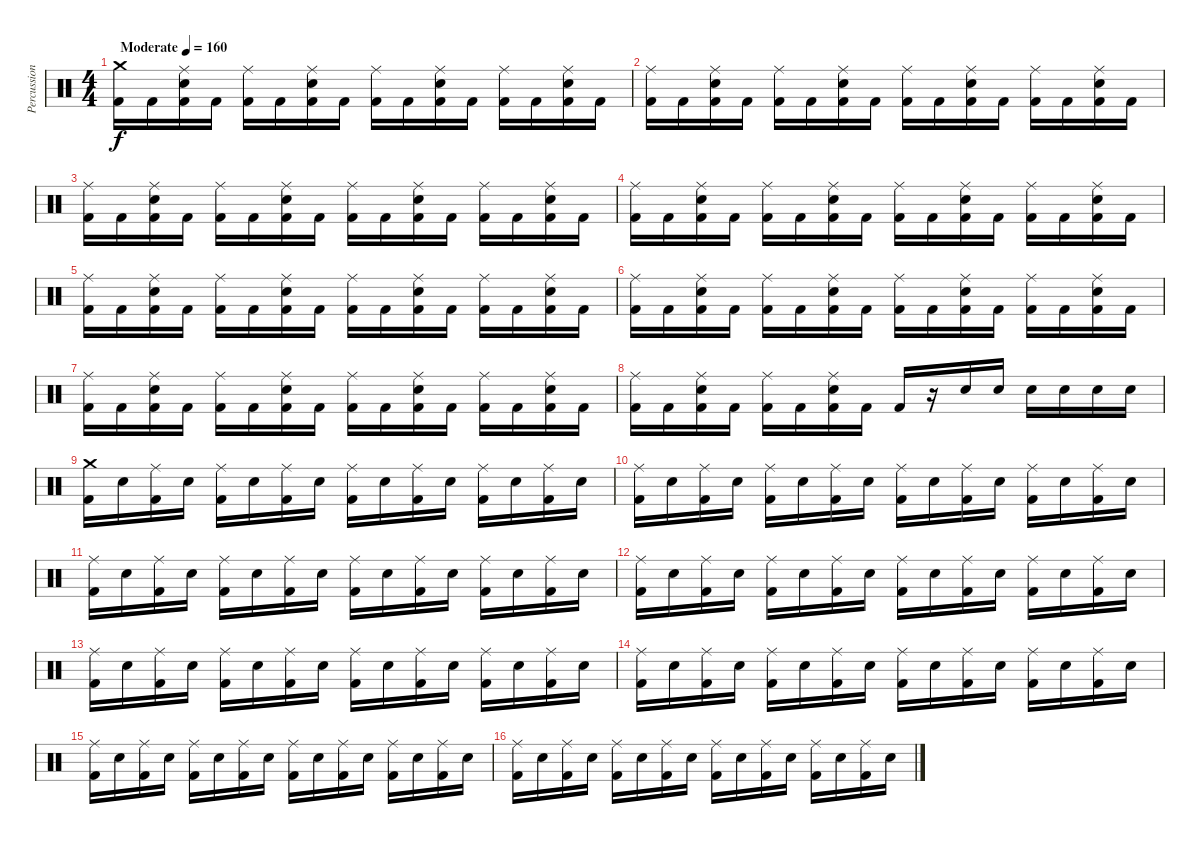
\track ("Percussions" "Percussion") {instrument percussion}
\staff {score}
\articulation defaults
\ts (4 4)
\tempo (160 "Moderate")
\clef neutral
\ks c
("Crash medium (hit)" "Kick (hit) 2").16{dy f} "Kick (hit) 2".16 ("Ride (middle)" "Snare (hit) 2" "Kick (hit) 2").16 "Kick (hit) 2".16 ("Ride (middle)" "Kick (hit) 2").16 "Kick (hit) 2".16 ("Ride (middle)" "Snare (hit) 2" "Kick (hit) 2").16 "Kick (hit) 2".16 ("Ride (middle)" "Kick (hit) 2").16 "Kick (hit) 2".16 ("Ride (middle)" "Snare (hit) 2" "Kick (hit) 2").16 "Kick (hit) 2".16 ("Ride (middle)" "Kick (hit) 2").16 "Kick (hit) 2".16 ("Ride (middle)" "Snare (hit) 2" "Kick (hit) 2").16 "Kick (hit) 2".16 |
("Ride (middle)" "Kick (hit) 2").16 "Kick (hit) 2".16 ("Ride (middle)" "Snare (hit) 2" "Kick (hit) 2").16 "Kick (hit) 2".16 ("Ride (middle)" "Kick (hit) 2").16 "Kick (hit) 2".16 ("Ride (middle)" "Snare (hit) 2" "Kick (hit) 2").16 "Kick (hit) 2".16 ("Ride (middle)" "Kick (hit) 2").16 "Kick (hit) 2".16 ("Ride (middle)" "Snare (hit) 2" "Kick (hit) 2").16 "Kick (hit) 2".16 ("Ride (middle)" "Kick (hit) 2").16 "Kick (hit) 2".16 ("Ride (middle)" "Snare (hit) 2" "Kick (hit) 2").16 "Kick (hit) 2".16 |
("Ride (middle)" "Kick (hit) 2").16 "Kick (hit) 2".16 ("Ride (middle)" "Snare (hit) 2" "Kick (hit) 2").16 "Kick (hit) 2".16 ("Ride (middle)" "Kick (hit) 2").16 "Kick (hit) 2".16 ("Ride (middle)" "Snare (hit) 2" "Kick (hit) 2").16 "Kick (hit) 2".16 ("Ride (middle)" "Kick (hit) 2").16 "Kick (hit) 2".16 ("Ride (middle)" "Snare (hit) 2" "Kick (hit) 2").16 "Kick (hit) 2".16 ("Ride (middle)" "Kick (hit) 2").16 "Kick (hit) 2".16 ("Ride (middle)" "Snare (hit) 2" "Kick (hit) 2").16 "Kick (hit) 2".16 |
("Ride (middle)" "Kick (hit) 2").16 "Kick (hit) 2".16 ("Ride (middle)" "Snare (hit) 2" "Kick (hit) 2").16 "Kick (hit) 2".16 ("Ride (middle)" "Kick (hit) 2").16 "Kick (hit) 2".16 ("Ride (middle)" "Snare (hit) 2" "Kick (hit) 2").16 "Kick (hit) 2".16 ("Ride (middle)" "Kick (hit) 2").16 "Kick (hit) 2".16 ("Ride (middle)" "Snare (hit) 2" "Kick (hit) 2").16 "Kick (hit) 2".16 ("Ride (middle)" "Kick (hit) 2").16 "Kick (hit) 2".16 ("Ride (middle)" "Snare (hit) 2" "Kick (hit) 2").16 "Kick (hit) 2".16 |
("Ride (middle)" "Kick (hit) 2").16 "Kick (hit) 2".16 ("Ride (middle)" "Snare (hit) 2" "Kick (hit) 2").16 "Kick (hit) 2".16 ("Ride (middle)" "Kick (hit) 2").16 "Kick (hit) 2".16 ("Ride (middle)" "Snare (hit) 2" "Kick (hit) 2").16 "Kick (hit) 2".16 ("Ride (middle)" "Kick (hit) 2").16 "Kick (hit) 2".16 ("Ride (middle)" "Snare (hit) 2" "Kick (hit) 2").16 "Kick (hit) 2".16 ("Ride (middle)" "Kick (hit) 2").16 "Kick (hit) 2".16 ("Ride (middle)" "Snare (hit) 2" "Kick (hit) 2").16 "Kick (hit) 2".16 |
("Ride (middle)" "Kick (hit) 2").16 "Kick (hit) 2".16 ("Ride (middle)" "Snare (hit) 2" "Kick (hit) 2").16 "Kick (hit) 2".16 ("Ride (middle)" "Kick (hit) 2").16 "Kick (hit) 2".16 ("Ride (middle)" "Snare (hit) 2" "Kick (hit) 2").16 "Kick (hit) 2".16 ("Ride (middle)" "Kick (hit) 2").16 "Kick (hit) 2".16 ("Ride (middle)" "Snare (hit) 2" "Kick (hit) 2").16 "Kick (hit) 2".16 ("Ride (middle)" "Kick (hit) 2").16 "Kick (hit) 2".16 ("Ride (middle)" "Snare (hit) 2" "Kick (hit) 2").16 "Kick (hit) 2".16 |
("Ride (middle)" "Kick (hit) 2").16 "Kick (hit) 2".16 ("Ride (middle)" "Snare (hit) 2" "Kick (hit) 2").16 "Kick (hit) 2".16 ("Ride (middle)" "Kick (hit) 2").16 "Kick (hit) 2".16 ("Ride (middle)" "Snare (hit) 2" "Kick (hit) 2").16 "Kick (hit) 2".16 ("Ride (middle)" "Kick (hit) 2").16 "Kick (hit) 2".16 ("Ride (middle)" "Snare (hit) 2" "Kick (hit) 2").16 "Kick (hit) 2".16 ("Ride (middle)" "Kick (hit) 2").16 "Kick (hit) 2".16 ("Ride (middle)" "Snare (hit) 2" "Kick (hit) 2").16 "Kick (hit) 2".16 |
("Ride (middle)" "Kick (hit) 2").16 "Kick (hit) 2".16 ("Ride (middle)" "Snare (hit) 2" "Kick (hit) 2").16 "Kick (hit) 2".16 ("Ride (middle)" "Kick (hit) 2").16 "Kick (hit) 2".16 ("Ride (middle)" "Snare (hit) 2" "Kick (hit) 2").16 "Kick (hit) 2".16 "Kick (hit) 2".16 r.16 "Snare (hit) 2".16 "Snare (hit) 2".16 "Snare (hit) 2".16 "Snare (hit) 2".16 "Snare (hit) 2".16 "Snare (hit) 2".16 |
("Crash medium (hit)" "Kick (hit) 2").16 "Snare (hit) 2".16 ("Ride (middle)" "Kick (hit) 2").16 "Snare (hit) 2".16 ("Ride (middle)" "Kick (hit) 2").16 "Snare (hit) 2".16 ("Ride (middle)" "Kick (hit) 2").16 "Snare (hit) 2".16 ("Ride (middle)" "Kick (hit) 2").16 "Snare (hit) 2".16 ("Ride (middle)" "Kick (hit) 2").16 "Snare (hit) 2".16 ("Ride (middle)" "Kick (hit) 2").16 "Snare (hit) 2".16 ("Ride (middle)" "Kick (hit) 2").16 "Snare (hit) 2".16 |
("Ride (middle)" "Kick (hit) 2").16 "Snare (hit) 2".16 ("Ride (middle)" "Kick (hit) 2").16 "Snare (hit) 2".16 ("Ride (middle)" "Kick (hit) 2").16 "Snare (hit) 2".16 ("Ride (middle)" "Kick (hit) 2").16 "Snare (hit) 2".16 ("Ride (middle)" "Kick (hit) 2").16 "Snare (hit) 2".16 ("Ride (middle)" "Kick (hit) 2").16 "Snare (hit) 2".16 ("Ride (middle)" "Kick (hit) 2").16 "Snare (hit) 2".16 ("Ride (middle)" "Kick (hit) 2").16 "Snare (hit) 2".16 |
("Ride (middle)" "Kick (hit) 2").16 "Snare (hit) 2".16 ("Ride (middle)" "Kick (hit) 2").16 "Snare (hit) 2".16 ("Ride (middle)" "Kick (hit) 2").16 "Snare (hit) 2".16 ("Ride (middle)" "Kick (hit) 2").16 "Snare (hit) 2".16 ("Ride (middle)" "Kick (hit) 2").16 "Snare (hit) 2".16 ("Ride (middle)" "Kick (hit) 2").16 "Snare (hit) 2".16 ("Ride (middle)" "Kick (hit) 2").16 "Snare (hit) 2".16 ("Ride (middle)" "Kick (hit) 2").16 "Snare (hit) 2".16 |
("Ride (middle)" "Kick (hit) 2").16 "Snare (hit) 2".16 ("Ride (middle)" "Kick (hit) 2").16 "Snare (hit) 2".16 ("Ride (middle)" "Kick (hit) 2").16 "Snare (hit) 2".16 ("Ride (middle)" "Kick (hit) 2").16 "Snare (hit) 2".16 ("Ride (middle)" "Kick (hit) 2").16 "Snare (hit) 2".16 ("Ride (middle)" "Kick (hit) 2").16 "Snare (hit) 2".16 ("Ride (middle)" "Kick (hit) 2").16 "Snare (hit) 2".16 ("Ride (middle)" "Kick (hit) 2").16 "Snare (hit) 2".16 |
("Ride (middle)" "Kick (hit) 2").16 "Snare (hit) 2".16 ("Ride (middle)" "Kick (hit) 2").16 "Snare (hit) 2".16 ("Ride (middle)" "Kick (hit) 2").16 "Snare (hit) 2".16 ("Ride (middle)" "Kick (hit) 2").16 "Snare (hit) 2".16 ("Ride (middle)" "Kick (hit) 2").16 "Snare (hit) 2".16 ("Ride (middle)" "Kick (hit) 2").16 "Snare (hit) 2".16 ("Ride (middle)" "Kick (hit) 2").16 "Snare (hit) 2".16 ("Ride (middle)" "Kick (hit) 2").16 "Snare (hit) 2".16 |
("Ride (middle)" "Kick (hit) 2").16 "Snare (hit) 2".16 ("Ride (middle)" "Kick (hit) 2").16 "Snare (hit) 2".16 ("Ride (middle)" "Kick (hit) 2").16 "Snare (hit) 2".16 ("Ride (middle)" "Kick (hit) 2").16 "Snare (hit) 2".16 ("Ride (middle)" "Kick (hit) 2").16 "Snare (hit) 2".16 ("Ride (middle)" "Kick (hit) 2").16 "Snare (hit) 2".16 ("Ride (middle)" "Kick (hit) 2").16 "Snare (hit) 2".16 ("Ride (middle)" "Kick (hit) 2").16 "Snare (hit) 2".16 |
("Ride (middle)" "Kick (hit) 2").16 "Snare (hit) 2".16 ("Ride (middle)" "Kick (hit) 2").16 "Snare (hit) 2".16 ("Ride (middle)" "Kick (hit) 2").16 "Snare (hit) 2".16 ("Ride (middle)" "Kick (hit) 2").16 "Snare (hit) 2".16 ("Ride (middle)" "Kick (hit) 2").16 "Snare (hit) 2".16 ("Ride (middle)" "Kick (hit) 2").16 "Snare (hit) 2".16 ("Ride (middle)" "Kick (hit) 2").16 "Snare (hit) 2".16 ("Ride (middle)" "Kick (hit) 2").16 "Snare (hit) 2".16 |
("Ride (middle)" "Kick (hit) 2").16 "Snare (hit) 2".16 ("Ride (middle)" "Kick (hit) 2").16 "Snare (hit) 2".16 ("Ride (middle)" "Kick (hit) 2").16 "Snare (hit) 2".16 ("Ride (middle)" "Kick (hit) 2").16 "Snare (hit) 2".16 ("Ride (middle)" "Kick (hit) 2").16 "Snare (hit) 2".16 ("Ride (middle)" "Kick (hit) 2").16 "Snare (hit) 2".16 ("Ride (middle)" "Kick (hit) 2").16 "Snare (hit) 2".16 ("Ride (middle)" "Kick (hit) 2").16 "Snare (hit) 2".16
